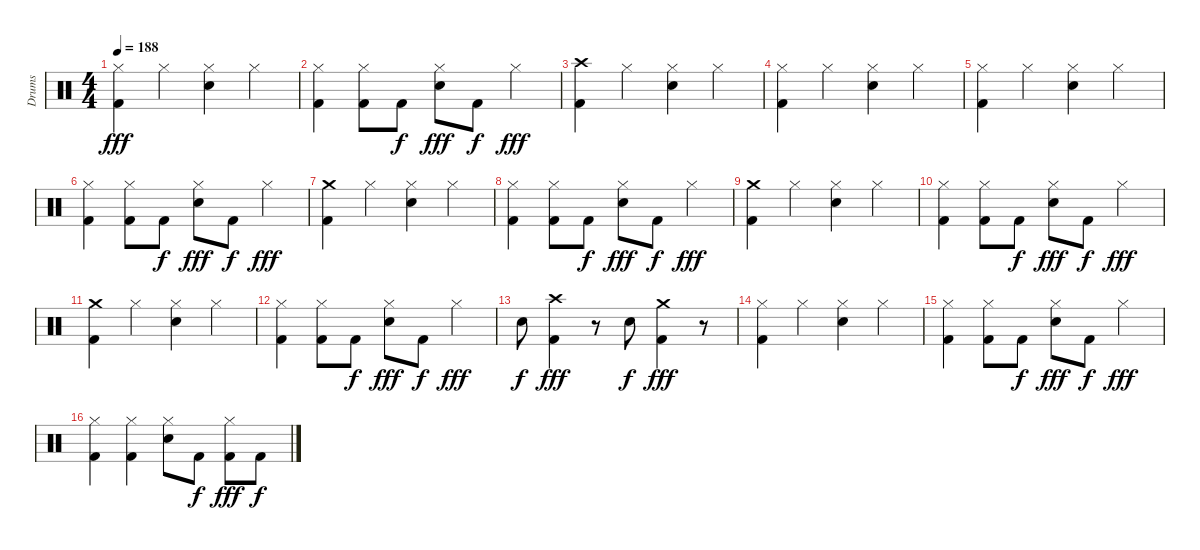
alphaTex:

\track ("Drums" "Drums") {instrument percussion}
\staff {score}
\articulation defaults
\ts (4 4)
\tempo 188
\clef neutral
\ks c
("Hi-Hat (closed)" "Kick (hit) 2").4{dy fff} "Hi-Hat (closed)".4 ("Hi-Hat (closed)" "Snare (hit) 2").4 "Hi-Hat (closed)".4 |
("Hi-Hat (closed)" "Kick (hit) 2").4 ("Hi-Hat (closed)" "Kick (hit) 2").8 "Kick (hit) 2".8{dy f} ("Hi-Hat (closed)" "Snare (hit) 2").8{dy fff} "Kick (hit) 2".8{dy f} "Hi-Hat (closed)".4{dy fff} |
("Crash high (hit)" "Kick (hit) 2").4 "Hi-Hat (closed)".4 ("Hi-Hat (closed)" "Snare (hit) 2").4 "Hi-Hat (closed)".4 |
("Hi-Hat (closed)" "Kick (hit) 2").4 "Hi-Hat (closed)".4 ("Hi-Hat (closed)" "Snare (hit) 2").4 "Hi-Hat (closed)".4 |
("Hi-Hat (closed)" "Kick (hit) 2").4 "Hi-Hat (closed)".4 ("Hi-Hat (closed)" "Snare (hit) 2").4 "Hi-Hat (closed)".4 |
("Hi-Hat (closed)" "Kick (hit) 2").4 ("Hi-Hat (closed)" "Kick (hit) 2").8 "Kick (hit) 2".8{dy f} ("Hi-Hat (closed)" "Snare (hit) 2").8{dy fff} "Kick (hit) 2".8{dy f} "Hi-Hat (closed)".4{dy fff} |
("Crash medium (hit)" "Kick (hit) 2").4 "Hi-Hat (closed)".4 ("Hi-Hat (closed)" "Snare (hit) 2").4 "Hi-Hat (closed)".4 |
("Hi-Hat (closed)" "Kick (hit) 2").4 ("Hi-Hat (closed)" "Kick (hit) 2").8 "Kick (hit) 2".8{dy f} ("Hi-Hat (closed)" "Snare (hit) 2").8{dy fff} "Kick (hit) 2".8{dy f} "Hi-Hat (closed)".4{dy fff} |
("Crash medium (hit)" "Kick (hit) 2").4 "Hi-Hat (closed)".4 ("Hi-Hat (closed)" "Snare (hit) 2").4 "Hi-Hat (closed)".4 |
("Hi-Hat (closed)" "Kick (hit) 2").4 ("Hi-Hat (closed)" "Kick (hit) 2").8 "Kick (hit) 2".8{dy f} ("Hi-Hat (closed)" "Snare (hit) 2").8{dy fff} "Kick (hit) 2".8{dy f} "Hi-Hat (closed)".4{dy fff} |
("Crash medium (hit)" "Kick (hit) 2").4 "Hi-Hat (closed)".4 ("Hi-Hat (closed)" "Snare (hit) 2").4 "Hi-Hat (closed)".4 |
("Hi-Hat (closed)" "Kick (hit) 2").4 ("Hi-Hat (closed)" "Kick (hit) 2").8 "Kick (hit) 2".8{dy f} ("Hi-Hat (closed)" "Snare (hit) 2").8{dy fff} "Kick (hit) 2".8{dy f} "Hi-Hat (closed)".4{dy fff} |
"Snare (hit) 2".8{dy f} ("Crash high (hit)" "Kick (hit) 2").4{dy fff} r.8 "Snare (hit) 2".8{dy f} ("Crash medium (hit)" "Kick (hit) 2").4{dy fff} r.8 |
("Hi-Hat (closed)" "Kick (hit) 2").4 "Hi-Hat (closed)".4 ("Hi-Hat (closed)" "Snare (hit) 2").4 "Hi-Hat (closed)".4 |
("Hi-Hat (closed)" "Kick (hit) 2").4 ("Hi-Hat (closed)" "Kick (hit) 2").8 "Kick (hit) 2".8{dy f} ("Hi-Hat (closed)" "Snare (hit) 2").8{dy fff} "Kick (hit) 2".8{dy f} "Hi-Hat (closed)".4{dy fff} |
("Hi-Hat (closed)" "Kick (hit) 2").4 ("Hi-Hat (closed)" "Kick (hit) 2").4 ("Hi-Hat (closed)" "Snare (hit) 2").8 "Kick (hit) 2".8{dy f} ("Hi-Hat (closed)" "Kick (hit) 2").8{dy fff} "Kick (hit) 2".8{dy f}
